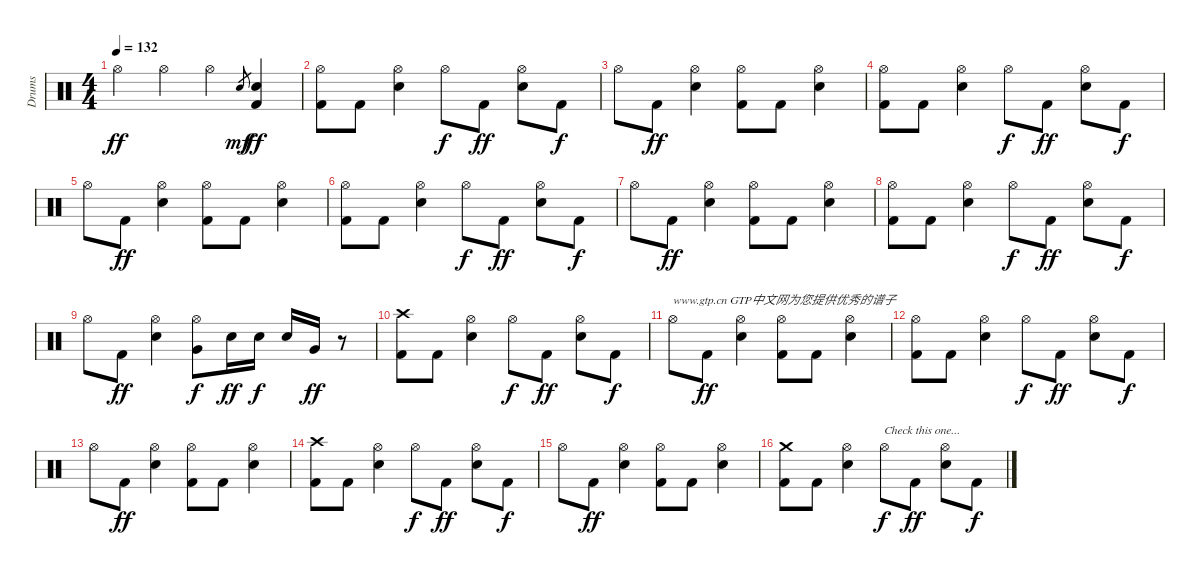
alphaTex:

\track ("Drums" "Drums") {instrument percussion}
\staff {score}
\articulation defaults
\ts (4 4)
\tempo 132
\clef neutral
\ks c "Hi-Hat (open)".4{dy ff} "Hi-Hat (open)".4 "Hi-Hat (open)".4 "Snare (hit) 2".8{gr dy mf}
("Snare (hit) 2" "Kick (hit) 2").4{dy ff} |
("Hi-Hat (open)" "Kick (hit) 2").8 "Kick (hit) 2".8 ("Hi-Hat (open)" "Snare (hit) 2").4 "Hi-Hat (open)".8{dy f} "Kick (hit) 2".8{dy ff} ("Hi-Hat (open)" "Snare (hit) 2").8 "Kick (hit) 2".8{dy f} |
"Hi-Hat (open)".8 "Kick (hit) 2".8{dy ff} ("Hi-Hat (open)" "Snare (hit) 2").4 ("Hi-Hat (open)" "Kick (hit) 2").8 "Kick (hit) 2".8 ("Hi-Hat (open)" "Snare (hit) 2").4 |
("Hi-Hat (open)" "Kick (hit) 2").8 "Kick (hit) 2".8 ("Hi-Hat (open)" "Snare (hit) 2").4 "Hi-Hat (open)".8{dy f} "Kick (hit) 2".8{dy ff} ("Hi-Hat (open)" "Snare (hit) 2").8 "Kick (hit) 2".8{dy f} |
"Hi-Hat (open)".8 "Kick (hit) 2".8{dy ff} ("Hi-Hat (open)" "Snare (hit) 2").4 ("Hi-Hat (open)" "Kick (hit) 2").8 "Kick (hit) 2".8 ("Hi-Hat (open)" "Snare (hit) 2").4 |
("Hi-Hat (open)" "Kick (hit) 2").8 "Kick (hit) 2".8 ("Hi-Hat (open)" "Snare (hit) 2").4 "Hi-Hat (open)".8{dy f} "Kick (hit) 2".8{dy ff} ("Hi-Hat (open)" "Snare (hit) 2").8 "Kick (hit) 2".8{dy f} |
"Hi-Hat (open)".8 "Kick (hit) 2".8{dy ff} ("Hi-Hat (open)" "Snare (hit) 2").4 ("Hi-Hat (open)" "Kick (hit) 2").8 "Kick (hit) 2".8 ("Hi-Hat (open)" "Snare (hit) 2").4 |
("Hi-Hat (open)" "Kick (hit) 2").8 "Kick (hit) 2".8 ("Hi-Hat (open)" "Snare (hit) 2").4 "Hi-Hat (open)".8{dy f} "Kick (hit) 2".8{dy ff} ("Hi-Hat (open)" "Snare (hit) 2").8 "Kick (hit) 2".8{dy f} |
"Hi-Hat (open)".8 "Kick (hit) 2".8{dy ff} ("Hi-Hat (open)" "Snare (hit) 2").4 ("Hi-Hat (open)" "Very Low Tom (hit)").8{dy f} "Snare (hit) 2".16{dy ff} "Snare (hit) 2".16{dy f} "Snare (hit) 2".16 "Very Low Tom (hit)".16{dy ff} r.8 |
("Crash high (hit)" "Kick (hit) 2").8 "Kick (hit) 2".8 ("Hi-Hat (open)" "Snare (hit) 2").4 "Hi-Hat (open)".8{dy f} "Kick (hit) 2".8{dy ff} ("Hi-Hat (open)" "Snare (hit) 2").8 "Kick (hit) 2".8{dy f} |
"Hi-Hat (open)".8{txt "www.gtp.cn GTP中文网为您提供优秀的谱子"} "Kick (hit) 2".8{dy ff} ("Hi-Hat (open)" "Snare (hit) 2").4 ("Hi-Hat (open)" "Kick (hit) 2").8 "Kick (hit) 2".8 ("Hi-Hat (open)" "Snare (hit) 2").4 |
("Hi-Hat (open)" "Kick (hit) 2").8 "Kick (hit) 2".8 ("Hi-Hat (open)" "Snare (hit) 2").4 "Hi-Hat (open)".8{dy f} "Kick (hit) 2".8{dy ff} ("Hi-Hat (open)" "Snare (hit) 2").8 "Kick (hit) 2".8{dy f} |
"Hi-Hat (open)".8 "Kick (hit) 2".8{dy ff} ("Hi-Hat (open)" "Snare (hit) 2").4 ("Hi-Hat (open)" "Kick (hit) 2").8 "Kick (hit) 2".8 ("Hi-Hat (open)" "Snare (hit) 2").4 |
("Crash high (hit)" "Kick (hit) 2").8 "Kick (hit) 2".8 ("Hi-Hat (open)" "Snare (hit) 2").4 "Hi-Hat (open)".8{dy f} "Kick (hit) 2".8{dy ff} ("Hi-Hat (open)" "Snare (hit) 2").8 "Kick (hit) 2".8{dy f} |
"Hi-Hat (open)".8 "Kick (hit) 2".8{dy ff} ("Hi-Hat (open)" "Snare (hit) 2").4 ("Hi-Hat (open)" "Kick (hit) 2").8 "Kick (hit) 2".8 ("Hi-Hat (open)" "Snare (hit) 2").4 |
("Crash medium (hit)" "Kick (hit) 2").8 "Kick (hit) 2".8 ("Hi-Hat (open)" "Snare (hit) 2").4 "Hi-Hat (open)".8{txt "Check this one..." dy f} "Kick (hit) 2".8{dy ff} ("Hi-Hat (open)" "Snare (hit) 2").8 "Kick (hit) 2".8{dy f}
